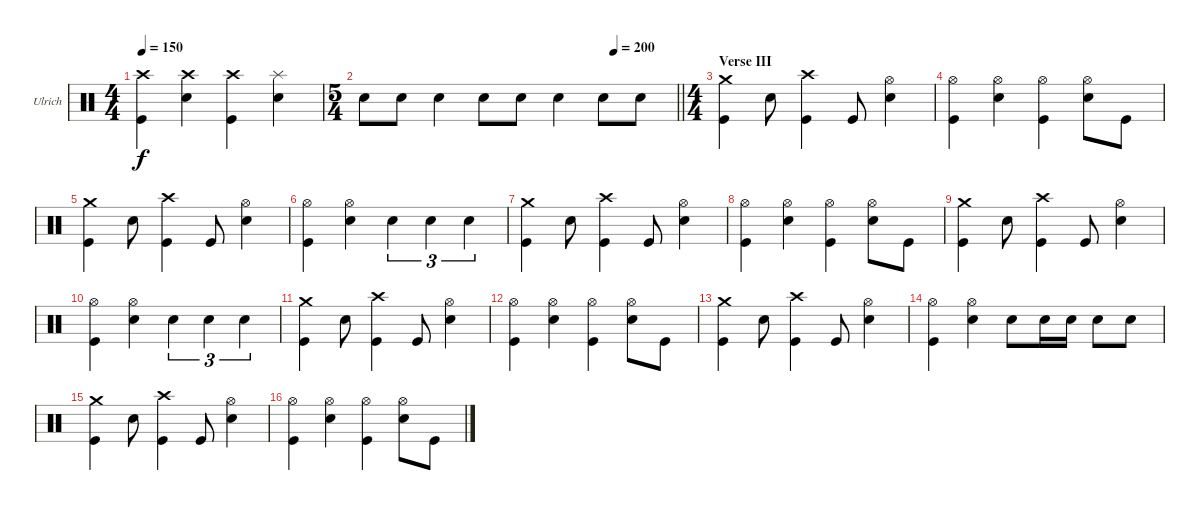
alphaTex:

\bracketExtendMode groupsimilarinstruments
\firstSystemTrackNameOrientation horizontal
\otherSystemsTrackNameOrientation horizontal
\track ("Drumkit" "Ulrich") {instrument percussion}
\staff {score}
\articulation defaults
\ts (4 4)
\tempo 150
\clef neutral
\ks c
("Crash high (hit)" "Kick (hit)").4{dy f} ("Crash high (hit)" "Snare (hit) 2").4 ("Crash high (hit)" "Kick (hit)").4 ("Splash (hit)" "Snare (hit) 2").4 |
\ts (5 4)
\beaming (8 2 2 2 4)
\tempo (200 0.8)
\barLineRight lightlight "Snare (hit) 2".8 "Snare (hit) 2".8 "Snare (hit) 2".4 "Snare (hit) 2".8 "Snare (hit) 2".8 "Snare (hit) 2".4 "Snare (hit) 2".8 "Snare (hit) 2".8
|
\ts (4 4)
\beaming (8 2 2 2 2)
\section ("" "Verse III")
("Crash medium (hit)" "Kick (hit)").4 "Snare (hit) 2".8 ("Crash high (hit)" "Kick (hit)").4 "Kick (hit)".8 ("Hi-Hat (open)" "Snare (hit) 2").4 |
("Hi-Hat (open)" "Kick (hit)").4 ("Hi-Hat (open)" "Snare (hit) 2").4 ("Hi-Hat (open)" "Kick (hit)").4 ("Hi-Hat (open)" "Snare (hit) 2").8 "Kick (hit)".8 |
("Crash medium (hit)" "Kick (hit)").4 "Snare (hit) 2".8 ("Crash high (hit)" "Kick (hit)").4 "Kick (hit)".8 ("Hi-Hat (open)" "Snare (hit) 2").4 |
("Hi-Hat (open)" "Kick (hit)").4 ("Hi-Hat (open)" "Snare (hit) 2").4 "Snare (hit) 2".4{tu (3 2)} "Snare (hit) 2".4{tu (3 2)} "Snare (hit) 2".4{tu (3 2)} |
("Crash medium (hit)" "Kick (hit)").4 "Snare (hit) 2".8 ("Crash high (hit)" "Kick (hit)").4 "Kick (hit)".8 ("Hi-Hat (open)" "Snare (hit) 2").4 |
("Hi-Hat (open)" "Kick (hit)").4 ("Hi-Hat (open)" "Snare (hit) 2").4 ("Hi-Hat (open)" "Kick (hit)").4 ("Hi-Hat (open)" "Snare (hit) 2").8 "Kick (hit)".8 |
("Crash medium (hit)" "Kick (hit)").4 "Snare (hit) 2".8 ("Crash high (hit)" "Kick (hit)").4 "Kick (hit)".8 ("Hi-Hat (open)" "Snare (hit) 2").4 |
("Hi-Hat (open)" "Kick (hit)").4 ("Hi-Hat (open)" "Snare (hit) 2").4 "Snare (hit) 2".4{tu (3 2)} "Snare (hit) 2".4{tu (3 2)} "Snare (hit) 2".4{tu (3 2)} |
("Crash medium (hit)" "Kick (hit)").4 "Snare (hit) 2".8 ("Crash high (hit)" "Kick (hit)").4 "Kick (hit)".8 ("Hi-Hat (open)" "Snare (hit) 2").4 |
("Hi-Hat (open)" "Kick (hit)").4 ("Hi-Hat (open)" "Snare (hit) 2").4 ("Hi-Hat (open)" "Kick (hit)").4 ("Hi-Hat (open)" "Snare (hit) 2").8 "Kick (hit)".8 |
("Crash medium (hit)" "Kick (hit)").4 "Snare (hit) 2".8 ("Crash high (hit)" "Kick (hit)").4 "Kick (hit)".8 ("Hi-Hat (open)" "Snare (hit) 2").4 |
("Hi-Hat (open)" "Kick (hit)").4 ("Hi-Hat (open)" "Snare (hit) 2").4 "Snare (hit) 2".8 "Snare (hit) 2".16 "Snare (hit) 2".16 "Snare (hit) 2".8 "Snare (hit) 2".8 |
("Crash medium (hit)" "Kick (hit)").4 "Snare (hit) 2".8 ("Crash high (hit)" "Kick (hit)").4 "Kick (hit)".8 ("Hi-Hat (open)" "Snare (hit) 2").4 |
("Hi-Hat (open)" "Kick (hit)").4 ("Hi-Hat (open)" "Snare (hit) 2").4 ("Hi-Hat (open)" "Kick (hit)").4 ("Hi-Hat (open)" "Snare (hit) 2").8 "Kick (hit)".8
